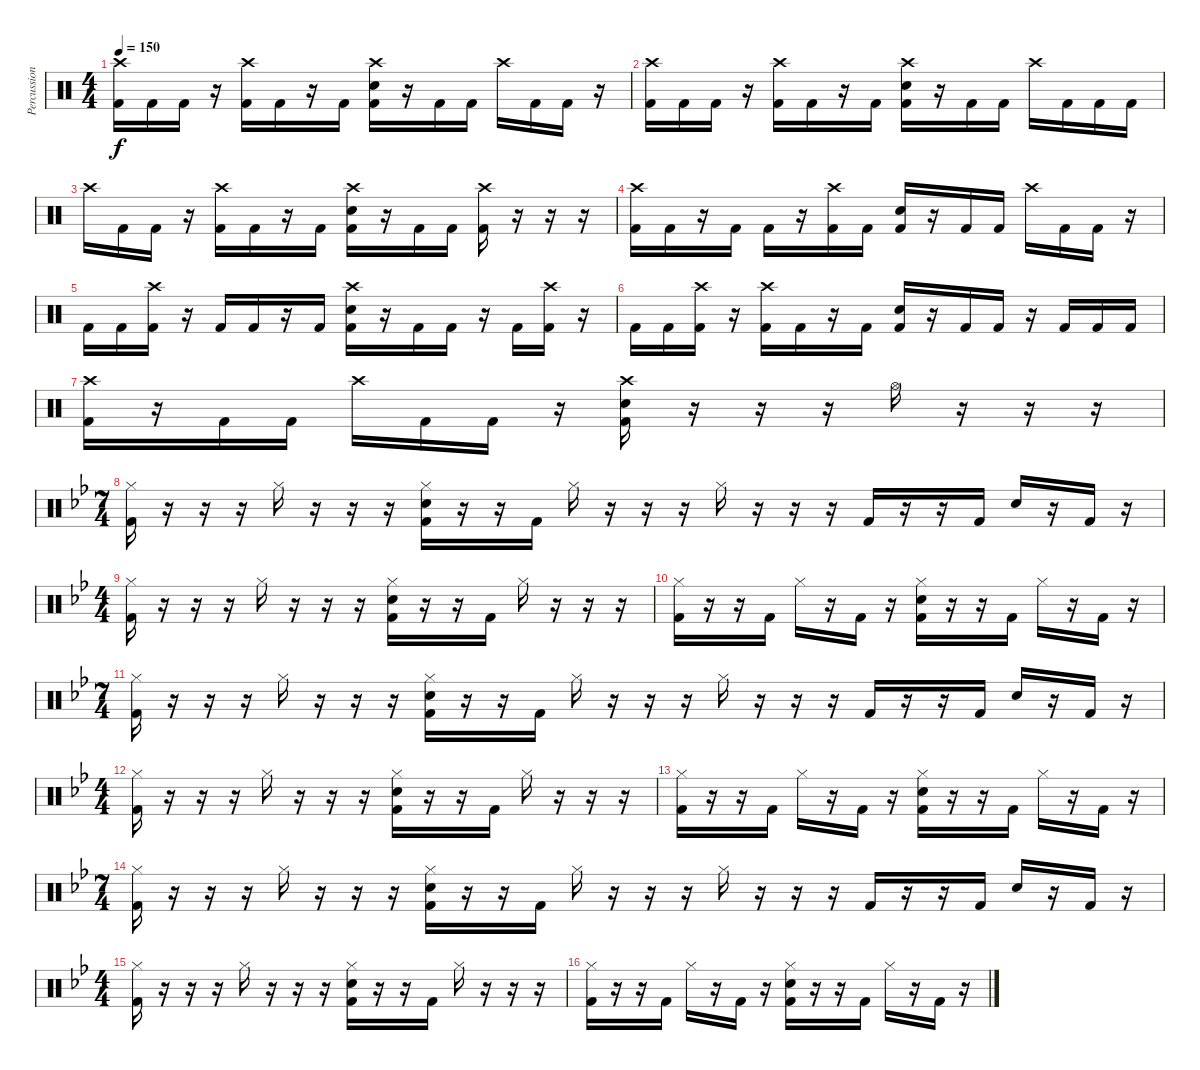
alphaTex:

\track ("Percussion" "Percussion") {instrument percussion}
\staff {score}
\articulation defaults
\ts (4 4)
\tempo 150
\clef neutral
\ks c
("Crash high (hit)" "Kick (hit) 2").16{dy f} "Kick (hit) 2".16 "Kick (hit) 2".16 r.16 ("Crash high (hit)" "Kick (hit) 2").16 "Kick (hit) 2".16 r.16 "Kick (hit) 2".16 ("Crash high (hit)" "Electric Snare (hit)" "Kick (hit) 2").16 r.16 "Kick (hit) 2".16 "Kick (hit) 2".16 "Crash high (hit)".16 "Kick (hit) 2".16 "Kick (hit) 2".16 r.16 |
("Crash high (hit)" "Kick (hit) 2").16 "Kick (hit) 2".16 "Kick (hit) 2".16 r.16 ("Crash high (hit)" "Kick (hit) 2").16 "Kick (hit) 2".16 r.16 "Kick (hit) 2".16 ("Crash high (hit)" "Electric Snare (hit)" "Kick (hit) 2").16 r.16 "Kick (hit) 2".16 "Kick (hit) 2".16 "Crash high (hit)".16 "Kick (hit) 2".16 "Kick (hit) 2".16 "Kick (hit) 2".16 |
"Crash high (hit)".16 "Kick (hit) 2".16 "Kick (hit) 2".16 r.16 ("Crash high (hit)" "Kick (hit) 2").16 "Kick (hit) 2".16 r.16 "Kick (hit) 2".16 ("Crash high (hit)" "Electric Snare (hit)" "Kick (hit) 2").16 r.16 "Kick (hit) 2".16 "Kick (hit) 2".16 ("Crash high (hit)" "Kick (hit) 2").16 r.16 r.16 r.16 |
("Crash high (hit)" "Kick (hit) 2").16 "Kick (hit) 2".16 r.16 "Kick (hit) 2".16 "Kick (hit) 2".16 r.16 ("Crash high (hit)" "Kick (hit) 2").16 "Kick (hit) 2".16 ("Electric Snare (hit)" "Kick (hit) 2").16 r.16 "Kick (hit) 2".16 "Kick (hit) 2".16 "Crash high (hit)".16 "Kick (hit) 2".16 "Kick (hit) 2".16 r.16 |
"Kick (hit) 2".16 "Kick (hit) 2".16 ("Crash high (hit)" "Kick (hit) 2").16 r.16 "Kick (hit) 2".16 "Kick (hit) 2".16 r.16 "Kick (hit) 2".16 ("Crash high (hit)" "Electric Snare (hit)" "Kick (hit) 2").16 r.16 "Kick (hit) 2".16 "Kick (hit) 2".16 r.16 "Kick (hit) 2".16 ("Crash high (hit)" "Kick (hit) 2").16 r.16 |
"Kick (hit) 2".16 "Kick (hit) 2".16 ("Crash high (hit)" "Kick (hit) 2").16 r.16 ("Crash high (hit)" "Kick (hit) 2").16 "Kick (hit) 2".16 r.16 "Kick (hit) 2".16 ("Electric Snare (hit)" "Kick (hit) 2").16 r.16 "Kick (hit) 2".16 "Kick (hit) 2".16 r.16 "Kick (hit) 2".16 "Kick (hit) 2".16 "Kick (hit) 2".16 |
("Crash high (hit)" "Kick (hit) 2").16 r.16 "Kick (hit) 2".16 "Kick (hit) 2".16 "Crash high (hit)".16 "Kick (hit) 2".16 "Kick (hit) 2".16 r.16 ("Crash high (hit)" "Electric Snare (hit)" "Kick (hit) 2").16 r.16 r.16 r.16 "Hi-Hat (open)".16 r.16 r.16 r.16 |
\ts (7 4)
\ks bb
("Hi-Hat (closed)" "Kick (hit) 2").16 r.16 r.16 r.16 "Hi-Hat (closed)".16 r.16 r.16 r.16 ("Hi-Hat (closed)" "Electric Snare (hit)" "Kick (hit) 2").16 r.16 r.16 "Kick (hit) 2".16 "Hi-Hat (closed)".16 r.16 r.16 r.16 "Hi-Hat (closed)".16 r.16 r.16 r.16 "Kick (hit) 2".16 r.16 r.16 "Kick (hit) 2".16 "Electric Snare (hit)".16 r.16 "Kick (hit) 2".16 r.16 |
\ts (4 4)
("Hi-Hat (closed)" "Kick (hit) 2").16 r.16 r.16 r.16 "Hi-Hat (closed)".16 r.16 r.16 r.16 ("Hi-Hat (closed)" "Electric Snare (hit)" "Kick (hit) 2").16 r.16 r.16 "Kick (hit) 2".16 "Hi-Hat (closed)".16 r.16 r.16 r.16 |
("Hi-Hat (closed)" "Kick (hit) 2").16 r.16 r.16 "Kick (hit) 2".16 "Hi-Hat (closed)".16 r.16 "Kick (hit) 2".16 r.16 ("Hi-Hat (closed)" "Electric Snare (hit)" "Kick (hit) 2").16 r.16 r.16 "Kick (hit) 2".16 "Hi-Hat (closed)".16 r.16 "Kick (hit) 2".16 r.16 |
\ts (7 4)
("Hi-Hat (closed)" "Kick (hit) 2").16 r.16 r.16 r.16 "Hi-Hat (closed)".16 r.16 r.16 r.16 ("Hi-Hat (closed)" "Electric Snare (hit)" "Kick (hit) 2").16 r.16 r.16 "Kick (hit) 2".16 "Hi-Hat (closed)".16 r.16 r.16 r.16 "Hi-Hat (closed)".16 r.16 r.16 r.16 "Kick (hit) 2".16 r.16 r.16 "Kick (hit) 2".16 "Electric Snare (hit)".16 r.16 "Kick (hit) 2".16 r.16 |
\ts (4 4)
("Hi-Hat (closed)" "Kick (hit) 2").16 r.16 r.16 r.16 "Hi-Hat (closed)".16 r.16 r.16 r.16 ("Hi-Hat (closed)" "Electric Snare (hit)" "Kick (hit) 2").16 r.16 r.16 "Kick (hit) 2".16 "Hi-Hat (closed)".16 r.16 r.16 r.16 |
("Hi-Hat (closed)" "Kick (hit) 2").16 r.16 r.16 "Kick (hit) 2".16 "Hi-Hat (closed)".16 r.16 "Kick (hit) 2".16 r.16 ("Hi-Hat (closed)" "Electric Snare (hit)" "Kick (hit) 2").16 r.16 r.16 "Kick (hit) 2".16 "Hi-Hat (closed)".16 r.16 "Kick (hit) 2".16 r.16 |
\ts (7 4)
("Hi-Hat (closed)" "Kick (hit) 2").16 r.16 r.16 r.16 "Hi-Hat (closed)".16 r.16 r.16 r.16 ("Hi-Hat (closed)" "Electric Snare (hit)" "Kick (hit) 2").16 r.16 r.16 "Kick (hit) 2".16 "Hi-Hat (closed)".16 r.16 r.16 r.16 "Hi-Hat (closed)".16 r.16 r.16 r.16 "Kick (hit) 2".16 r.16 r.16 "Kick (hit) 2".16 "Electric Snare (hit)".16 r.16 "Kick (hit) 2".16 r.16 |
\ts (4 4)
("Hi-Hat (closed)" "Kick (hit) 2").16 r.16 r.16 r.16 "Hi-Hat (closed)".16 r.16 r.16 r.16 ("Hi-Hat (closed)" "Electric Snare (hit)" "Kick (hit) 2").16 r.16 r.16 "Kick (hit) 2".16 "Hi-Hat (closed)".16 r.16 r.16 r.16 |
("Hi-Hat (closed)" "Kick (hit) 2").16 r.16 r.16 "Kick (hit) 2".16 "Hi-Hat (closed)".16 r.16 "Kick (hit) 2".16 r.16 ("Hi-Hat (closed)" "Electric Snare (hit)" "Kick (hit) 2").16 r.16 r.16 "Kick (hit) 2".16 "Hi-Hat (closed)".16 r.16 "Kick (hit) 2".16 r.16
